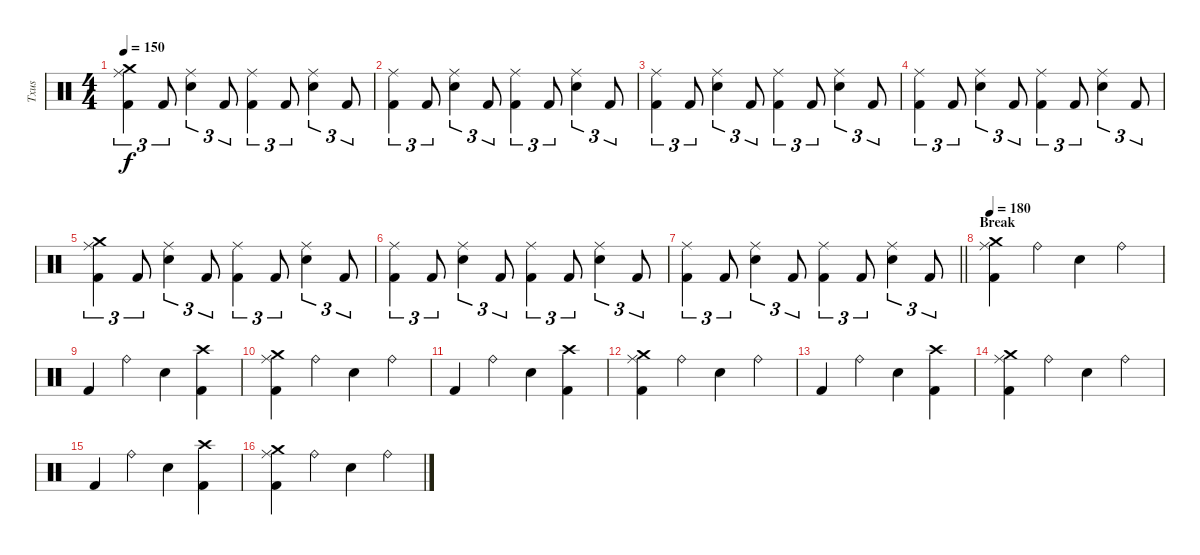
\track ("Txus" "Txus") {instrument percussion}
\staff {score}
\articulation defaults
\ts (4 4)
\tempo 150
\clef neutral
\ks c
("Crash medium (hit)" "Ride (middle)" "Kick (hit) 2").4{tu (3 2) dy f} "Kick (hit) 2".8{tu (3 2)} ("Ride (middle)" "Electric Snare (hit)").4{tu (3 2)} "Kick (hit) 2".8{tu (3 2)} ("Ride (middle)" "Kick (hit) 2").4{tu (3 2)} "Kick (hit) 2".8{tu (3 2)} ("Ride (middle)" "Electric Snare (hit)").4{tu (3 2)} "Kick (hit) 2".8{tu (3 2)} |
("Ride (middle)" "Kick (hit) 2").4{tu (3 2)} "Kick (hit) 2".8{tu (3 2)} ("Ride (middle)" "Electric Snare (hit)").4{tu (3 2)} "Kick (hit) 2".8{tu (3 2)} ("Ride (middle)" "Kick (hit) 2").4{tu (3 2)} "Kick (hit) 2".8{tu (3 2)} ("Ride (middle)" "Electric Snare (hit)").4{tu (3 2)} "Kick (hit) 2".8{tu (3 2)} |
("Ride (middle)" "Kick (hit) 2").4{tu (3 2)} "Kick (hit) 2".8{tu (3 2)} ("Ride (middle)" "Electric Snare (hit)").4{tu (3 2)} "Kick (hit) 2".8{tu (3 2)} ("Ride (middle)" "Kick (hit) 2").4{tu (3 2)} "Kick (hit) 2".8{tu (3 2)} ("Ride (middle)" "Electric Snare (hit)").4{tu (3 2)} "Kick (hit) 2".8{tu (3 2)} |
("Ride (middle)" "Kick (hit) 2").4{tu (3 2)} "Kick (hit) 2".8{tu (3 2)} ("Ride (middle)" "Electric Snare (hit)").4{tu (3 2)} "Kick (hit) 2".8{tu (3 2)} ("Ride (middle)" "Kick (hit) 2").4{tu (3 2)} "Kick (hit) 2".8{tu (3 2)} ("Ride (middle)" "Electric Snare (hit)").4{tu (3 2)} "Kick (hit) 2".8{tu (3 2)} |
("Crash medium (hit)" "Ride (middle)" "Kick (hit) 2").4{tu (3 2)} "Kick (hit) 2".8{tu (3 2)} ("Ride (middle)" "Electric Snare (hit)").4{tu (3 2)} "Kick (hit) 2".8{tu (3 2)} ("Ride (middle)" "Kick (hit) 2").4{tu (3 2)} "Kick (hit) 2".8{tu (3 2)} ("Ride (middle)" "Electric Snare (hit)").4{tu (3 2)} "Kick (hit) 2".8{tu (3 2)} |
("Ride (middle)" "Kick (hit) 2").4{tu (3 2)} "Kick (hit) 2".8{tu (3 2)} ("Ride (middle)" "Electric Snare (hit)").4{tu (3 2)} "Kick (hit) 2".8{tu (3 2)} ("Ride (middle)" "Kick (hit) 2").4{tu (3 2)} "Kick (hit) 2".8{tu (3 2)} ("Ride (middle)" "Electric Snare (hit)").4{tu (3 2)} "Kick (hit) 2".8{tu (3 2)} |
\barLineRight lightlight
("Ride (middle)" "Kick (hit) 2").4{tu (3 2)} "Kick (hit) 2".8{tu (3 2)} ("Ride (middle)" "Electric Snare (hit)").4{tu (3 2)} "Kick (hit) 2".8{tu (3 2)} ("Ride (middle)" "Kick (hit) 2").4{tu (3 2)} "Kick (hit) 2".8{tu (3 2)} ("Ride (middle)" "Electric Snare (hit)").4{tu (3 2)} "Kick (hit) 2".8{tu (3 2)} |
\section ("" "Break")
\tempo 180
("Crash medium (hit)" "Ride (middle)" "Kick (hit) 2").4 "Ride (bell)".4 "Electric Snare (hit)".4 "Ride (bell)".4 |
"Kick (hit) 2".4 "Ride (bell)".4 "Electric Snare (hit)".4 ("Crash high (hit)" "Kick (hit) 2").4 |
("Crash medium (hit)" "Ride (middle)" "Kick (hit) 2").4 "Ride (bell)".4 "Electric Snare (hit)".4 "Ride (bell)".4 |
"Kick (hit) 2".4 "Ride (bell)".4 "Electric Snare (hit)".4 ("Crash high (hit)" "Kick (hit) 2").4 |
("Crash medium (hit)" "Ride (middle)" "Kick (hit) 2").4 "Ride (bell)".4 "Electric Snare (hit)".4 "Ride (bell)".4 |
"Kick (hit) 2".4 "Ride (bell)".4 "Electric Snare (hit)".4 ("Crash high (hit)" "Kick (hit) 2").4 |
("Crash medium (hit)" "Ride (middle)" "Kick (hit) 2").4 "Ride (bell)".4 "Electric Snare (hit)".4 "Ride (bell)".4 |
"Kick (hit) 2".4 "Ride (bell)".4 "Electric Snare (hit)".4 ("Crash high (hit)" "Kick (hit) 2").4 |
("Crash medium (hit)" "Ride (middle)" "Kick (hit) 2").4 "Ride (bell)".4 "Electric Snare (hit)".4 "Ride (bell)".4
